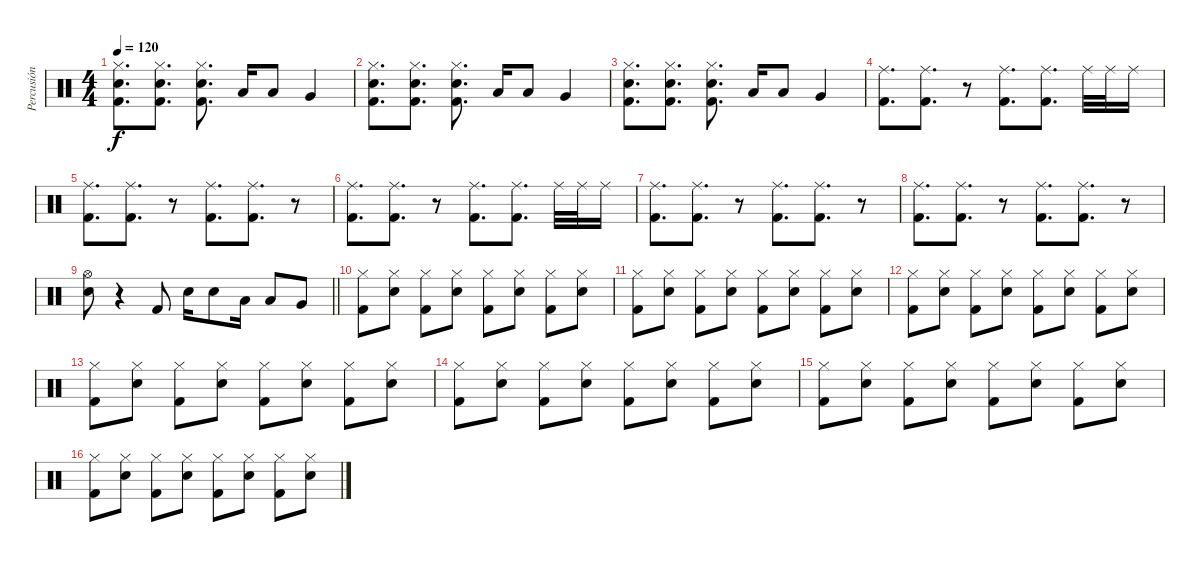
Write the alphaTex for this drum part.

\track ("Percusión" "Percusión") {instrument percussion}
\staff {score}
\articulation defaults
\ts (4 4)
\tempo 120
\clef neutral
\ks c
("Kick (hit) 2" "Electric Snare (hit)" "Hi-Hat (closed)").8{d dy f} ("Kick (hit) 2" "Electric Snare (hit)" "Hi-Hat (closed)").8{d} ("Kick (hit) 2" "Electric Snare (hit)" "Hi-Hat (closed)").8{d} "Low Tom (hit)".16 "Low Tom (hit)".8 "Very Low Tom (hit)".4 |
("Kick (hit) 2" "Electric Snare (hit)" "Hi-Hat (closed)").8{d} ("Kick (hit) 2" "Electric Snare (hit)" "Hi-Hat (closed)").8{d} ("Kick (hit) 2" "Electric Snare (hit)" "Hi-Hat (closed)").8{d} "Low Tom (hit)".16 "Low Tom (hit)".8 "Very Low Tom (hit)".4 |
("Kick (hit) 2" "Electric Snare (hit)" "Hi-Hat (closed)").8{d} ("Kick (hit) 2" "Electric Snare (hit)" "Hi-Hat (closed)").8{d} ("Kick (hit) 2" "Electric Snare (hit)" "Hi-Hat (closed)").8{d} "Low Tom (hit)".16 "Low Tom (hit)".8 "Very Low Tom (hit)".4 |
("Kick (hit) 2" "Ride (middle)").8{d} ("Kick (hit) 2" "Ride (middle)").8{d} r.8 ("Kick (hit) 2" "Ride (middle)").8{d} ("Kick (hit) 2" "Ride (middle)").8{d} "Ride (middle)".32 "Ride (middle)".32 "Ride (middle)".16 |
("Kick (hit) 2" "Ride (middle)").8{d} ("Kick (hit) 2" "Ride (middle)").8{d} r.8 ("Kick (hit) 2" "Ride (middle)").8{d} ("Kick (hit) 2" "Ride (middle)").8{d} r.8 |
("Kick (hit) 2" "Ride (middle)").8{d} ("Kick (hit) 2" "Ride (middle)").8{d} r.8 ("Kick (hit) 2" "Ride (middle)").8{d} ("Kick (hit) 2" "Ride (middle)").8{d} "Ride (middle)".32 "Ride (middle)".32 "Ride (middle)".16 |
("Kick (hit) 2" "Ride (middle)").8{d} ("Kick (hit) 2" "Ride (middle)").8{d} r.8 ("Kick (hit) 2" "Ride (middle)").8{d} ("Kick (hit) 2" "Ride (middle)").8{d} r.8 |
("Kick (hit) 2" "Ride (middle)").8{d} ("Kick (hit) 2" "Ride (middle)").8{d} r.8 ("Kick (hit) 2" "Ride (middle)").8{d} ("Kick (hit) 2" "Ride (middle)").8{d} r.8 |
\barLineRight lightlight
("Hi-Hat (open)" "Electric Snare (hit)").8 r.4 "Kick (hit) 2".8 "Electric Snare (hit)".16 "Electric Snare (hit)".8 "Low Tom (hit)".16 "Low Tom (hit)".8 "Very Low Tom (hit)".8 |
("Hi-Hat (closed)" "Kick (hit) 2").8 ("Hi-Hat (closed)" "Electric Snare (hit)").8 ("Hi-Hat (closed)" "Kick (hit) 2").8 ("Hi-Hat (closed)" "Electric Snare (hit)").8 ("Hi-Hat (closed)" "Kick (hit) 2").8 ("Hi-Hat (closed)" "Electric Snare (hit)").8 ("Hi-Hat (closed)" "Kick (hit) 2").8 ("Hi-Hat (closed)" "Electric Snare (hit)").8 |
("Hi-Hat (closed)" "Kick (hit) 2").8 ("Hi-Hat (closed)" "Electric Snare (hit)").8 ("Hi-Hat (closed)" "Kick (hit) 2").8 ("Hi-Hat (closed)" "Electric Snare (hit)").8 ("Hi-Hat (closed)" "Kick (hit) 2").8 ("Hi-Hat (closed)" "Electric Snare (hit)").8 ("Hi-Hat (closed)" "Kick (hit) 2").8 ("Hi-Hat (closed)" "Electric Snare (hit)").8 |
("Hi-Hat (closed)" "Kick (hit) 2").8 ("Hi-Hat (closed)" "Electric Snare (hit)").8 ("Hi-Hat (closed)" "Kick (hit) 2").8 ("Hi-Hat (closed)" "Electric Snare (hit)").8 ("Hi-Hat (closed)" "Kick (hit) 2").8 ("Hi-Hat (closed)" "Electric Snare (hit)").8 ("Hi-Hat (closed)" "Kick (hit) 2").8 ("Hi-Hat (closed)" "Electric Snare (hit)").8 |
("Hi-Hat (closed)" "Kick (hit) 2").8 ("Hi-Hat (closed)" "Electric Snare (hit)").8 ("Hi-Hat (closed)" "Kick (hit) 2").8 ("Hi-Hat (closed)" "Electric Snare (hit)").8 ("Hi-Hat (closed)" "Kick (hit) 2").8 ("Hi-Hat (closed)" "Electric Snare (hit)").8 ("Hi-Hat (closed)" "Kick (hit) 2").8 ("Hi-Hat (closed)" "Electric Snare (hit)").8 |
("Hi-Hat (closed)" "Kick (hit) 2").8 ("Hi-Hat (closed)" "Electric Snare (hit)").8 ("Hi-Hat (closed)" "Kick (hit) 2").8 ("Hi-Hat (closed)" "Electric Snare (hit)").8 ("Hi-Hat (closed)" "Kick (hit) 2").8 ("Hi-Hat (closed)" "Electric Snare (hit)").8 ("Hi-Hat (closed)" "Kick (hit) 2").8 ("Hi-Hat (closed)" "Electric Snare (hit)").8 |
("Hi-Hat (closed)" "Kick (hit) 2").8 ("Hi-Hat (closed)" "Electric Snare (hit)").8 ("Hi-Hat (closed)" "Kick (hit) 2").8 ("Hi-Hat (closed)" "Electric Snare (hit)").8 ("Hi-Hat (closed)" "Kick (hit) 2").8 ("Hi-Hat (closed)" "Electric Snare (hit)").8 ("Hi-Hat (closed)" "Kick (hit) 2").8 ("Hi-Hat (closed)" "Electric Snare (hit)").8 |
("Hi-Hat (closed)" "Kick (hit) 2").8 ("Hi-Hat (closed)" "Electric Snare (hit)").8 ("Hi-Hat (closed)" "Kick (hit) 2").8 ("Hi-Hat (closed)" "Electric Snare (hit)").8 ("Hi-Hat (closed)" "Kick (hit) 2").8 ("Hi-Hat (closed)" "Electric Snare (hit)").8 ("Hi-Hat (closed)" "Kick (hit) 2").8 ("Hi-Hat (closed)" "Electric Snare (hit)").8
